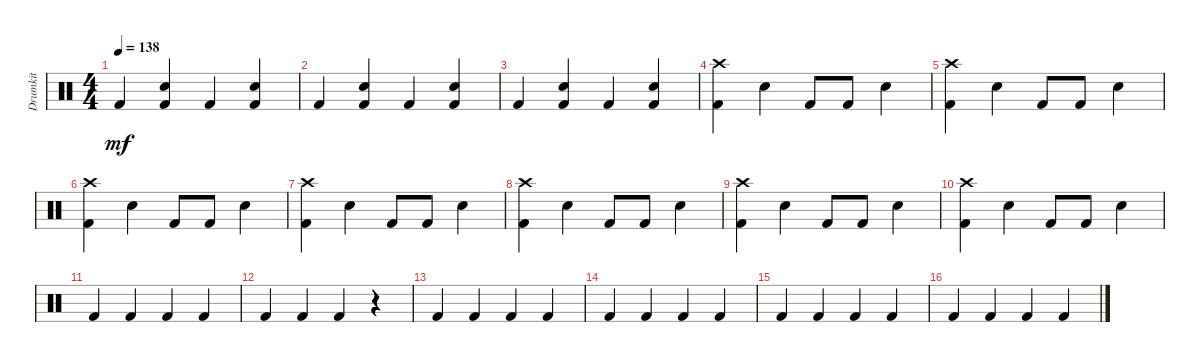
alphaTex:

\track ("Drumkit" "Drumkit") {instrument percussion}
\staff {score}
\articulation defaults
\ts (4 4)
\tempo 138
\clef neutral
\ks c "Kick (hit) 2".4{dy mf}
("Kick (hit) 2" "Snare (hit) 2").4 "Kick (hit) 2".4 ("Kick (hit) 2" "Snare (hit) 2").4 |
"Kick (hit) 2".4 ("Kick (hit) 2" "Snare (hit) 2").4 "Kick (hit) 2".4 ("Kick (hit) 2" "Snare (hit) 2").4 |
"Kick (hit) 2".4 ("Kick (hit) 2" "Snare (hit) 2").4 "Kick (hit) 2".4 ("Kick (hit) 2" "Snare (hit) 2").4 |
("Crash high (hit)" "Kick (hit) 2").4 "Snare (hit) 2".4 "Kick (hit) 2".8 "Kick (hit) 2".8 "Snare (hit) 2".4 |
("Crash high (hit)" "Kick (hit) 2").4 "Snare (hit) 2".4 "Kick (hit) 2".8 "Kick (hit) 2".8 "Snare (hit) 2".4 |
("Crash high (hit)" "Kick (hit) 2").4 "Snare (hit) 2".4 "Kick (hit) 2".8 "Kick (hit) 2".8 "Snare (hit) 2".4 |
("Crash high (hit)" "Kick (hit) 2").4 "Snare (hit) 2".4 "Kick (hit) 2".8 "Kick (hit) 2".8 "Snare (hit) 2".4 |
("Crash high (hit)" "Kick (hit) 2").4 "Snare (hit) 2".4 "Kick (hit) 2".8 "Kick (hit) 2".8 "Snare (hit) 2".4 |
("Crash high (hit)" "Kick (hit) 2").4 "Snare (hit) 2".4 "Kick (hit) 2".8 "Kick (hit) 2".8 "Snare (hit) 2".4 |
("Crash high (hit)" "Kick (hit) 2").4 "Snare (hit) 2".4 "Kick (hit) 2".8 "Kick (hit) 2".8 "Snare (hit) 2".4 |
"Kick (hit) 2".4 "Kick (hit) 2".4 "Kick (hit) 2".4 "Kick (hit) 2".4 |
"Kick (hit) 2".4 "Kick (hit) 2".4 "Kick (hit) 2".4 r.4 |
"Kick (hit) 2".4 "Kick (hit) 2".4 "Kick (hit) 2".4 "Kick (hit) 2".4 |
"Kick (hit) 2".4 "Kick (hit) 2".4 "Kick (hit) 2".4 "Kick (hit) 2".4 |
"Kick (hit) 2".4 "Kick (hit) 2".4 "Kick (hit) 2".4 "Kick (hit) 2".4 |
"Kick (hit) 2".4 "Kick (hit) 2".4 "Kick (hit) 2".4 "Kick (hit) 2".4
